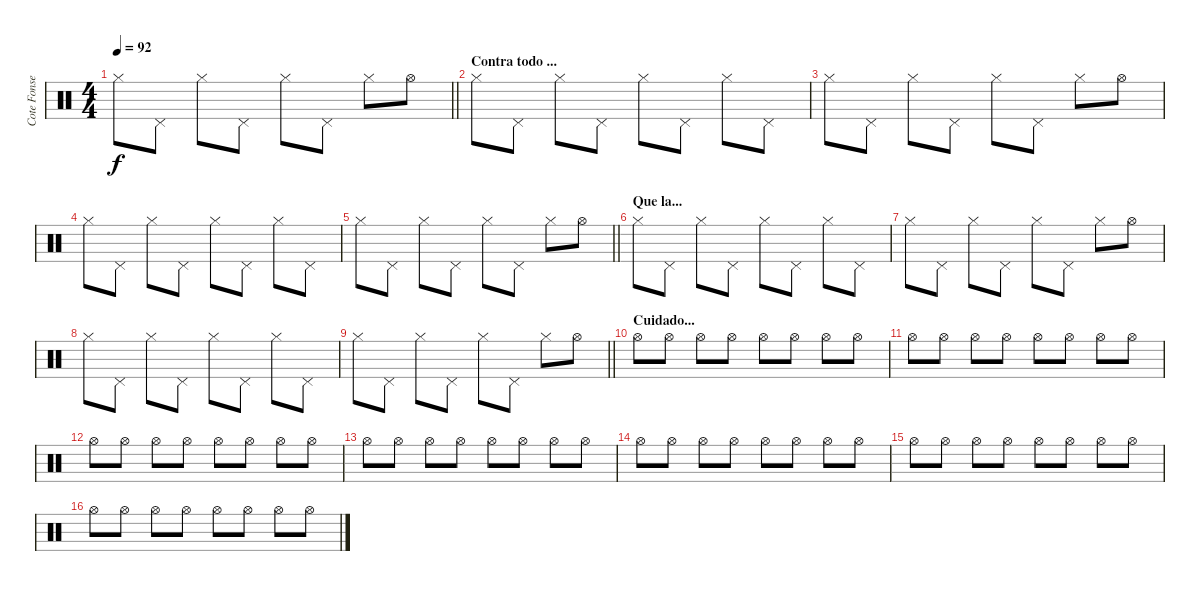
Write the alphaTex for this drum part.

\track ("Cote Fonsea" "Cote Fonse") {instrument percussion}
\staff {score}
\articulation defaults
\ts (4 4)
\tempo 92
\clef neutral
\barLineRight lightlight
\ks c "Hi-Hat (closed)".8{dy f} "Pedal Hi-Hat (hit)".8 "Hi-Hat (closed)".8 "Pedal Hi-Hat (hit)".8 "Hi-Hat (closed)".8 "Pedal Hi-Hat (hit)".8 "Hi-Hat (closed)".8 "Hi-Hat (open)".8
|
\section ("" "Contra todo ...")
"Hi-Hat (closed)".8 "Pedal Hi-Hat (hit)".8 "Hi-Hat (closed)".8 "Pedal Hi-Hat (hit)".8 "Hi-Hat (closed)".8 "Pedal Hi-Hat (hit)".8 "Hi-Hat (closed)".8 "Pedal Hi-Hat (hit)".8 |
"Hi-Hat (closed)".8 "Pedal Hi-Hat (hit)".8 "Hi-Hat (closed)".8 "Pedal Hi-Hat (hit)".8 "Hi-Hat (closed)".8 "Pedal Hi-Hat (hit)".8 "Hi-Hat (closed)".8 "Hi-Hat (open)".8 |
"Hi-Hat (closed)".8 "Pedal Hi-Hat (hit)".8 "Hi-Hat (closed)".8 "Pedal Hi-Hat (hit)".8 "Hi-Hat (closed)".8 "Pedal Hi-Hat (hit)".8 "Hi-Hat (closed)".8 "Pedal Hi-Hat (hit)".8 |
\barLineRight lightlight "Hi-Hat (closed)".8 "Pedal Hi-Hat (hit)".8 "Hi-Hat (closed)".8 "Pedal Hi-Hat (hit)".8 "Hi-Hat (closed)".8 "Pedal Hi-Hat (hit)".8 "Hi-Hat (closed)".8 "Hi-Hat (open)".8
|
\section ("" "Que la...")
"Hi-Hat (closed)".8 "Pedal Hi-Hat (hit)".8 "Hi-Hat (closed)".8 "Pedal Hi-Hat (hit)".8 "Hi-Hat (closed)".8 "Pedal Hi-Hat (hit)".8 "Hi-Hat (closed)".8 "Pedal Hi-Hat (hit)".8 |
"Hi-Hat (closed)".8 "Pedal Hi-Hat (hit)".8 "Hi-Hat (closed)".8 "Pedal Hi-Hat (hit)".8 "Hi-Hat (closed)".8 "Pedal Hi-Hat (hit)".8 "Hi-Hat (closed)".8 "Hi-Hat (open)".8 |
"Hi-Hat (closed)".8 "Pedal Hi-Hat (hit)".8 "Hi-Hat (closed)".8 "Pedal Hi-Hat (hit)".8 "Hi-Hat (closed)".8 "Pedal Hi-Hat (hit)".8 "Hi-Hat (closed)".8 "Pedal Hi-Hat (hit)".8 |
\barLineRight lightlight "Hi-Hat (closed)".8 "Pedal Hi-Hat (hit)".8 "Hi-Hat (closed)".8 "Pedal Hi-Hat (hit)".8 "Hi-Hat (closed)".8 "Pedal Hi-Hat (hit)".8 "Hi-Hat (closed)".8 "Hi-Hat (open)".8
|
\section ("" "Cuidado...")
"Hi-Hat (open)".8 "Hi-Hat (open)".8 "Hi-Hat (open)".8 "Hi-Hat (open)".8 "Hi-Hat (open)".8 "Hi-Hat (open)".8 "Hi-Hat (open)".8 "Hi-Hat (open)".8 |
"Hi-Hat (open)".8 "Hi-Hat (open)".8 "Hi-Hat (open)".8 "Hi-Hat (open)".8 "Hi-Hat (open)".8 "Hi-Hat (open)".8 "Hi-Hat (open)".8 "Hi-Hat (open)".8 |
"Hi-Hat (open)".8 "Hi-Hat (open)".8 "Hi-Hat (open)".8 "Hi-Hat (open)".8 "Hi-Hat (open)".8 "Hi-Hat (open)".8 "Hi-Hat (open)".8 "Hi-Hat (open)".8 |
"Hi-Hat (open)".8 "Hi-Hat (open)".8 "Hi-Hat (open)".8 "Hi-Hat (open)".8 "Hi-Hat (open)".8 "Hi-Hat (open)".8 "Hi-Hat (open)".8 "Hi-Hat (open)".8 |
"Hi-Hat (open)".8 "Hi-Hat (open)".8 "Hi-Hat (open)".8 "Hi-Hat (open)".8 "Hi-Hat (open)".8 "Hi-Hat (open)".8 "Hi-Hat (open)".8 "Hi-Hat (open)".8 |
"Hi-Hat (open)".8 "Hi-Hat (open)".8 "Hi-Hat (open)".8 "Hi-Hat (open)".8 "Hi-Hat (open)".8 "Hi-Hat (open)".8 "Hi-Hat (open)".8 "Hi-Hat (open)".8 |
"Hi-Hat (open)".8 "Hi-Hat (open)".8 "Hi-Hat (open)".8 "Hi-Hat (open)".8 "Hi-Hat (open)".8 "Hi-Hat (open)".8 "Hi-Hat (open)".8 "Hi-Hat (open)".8
